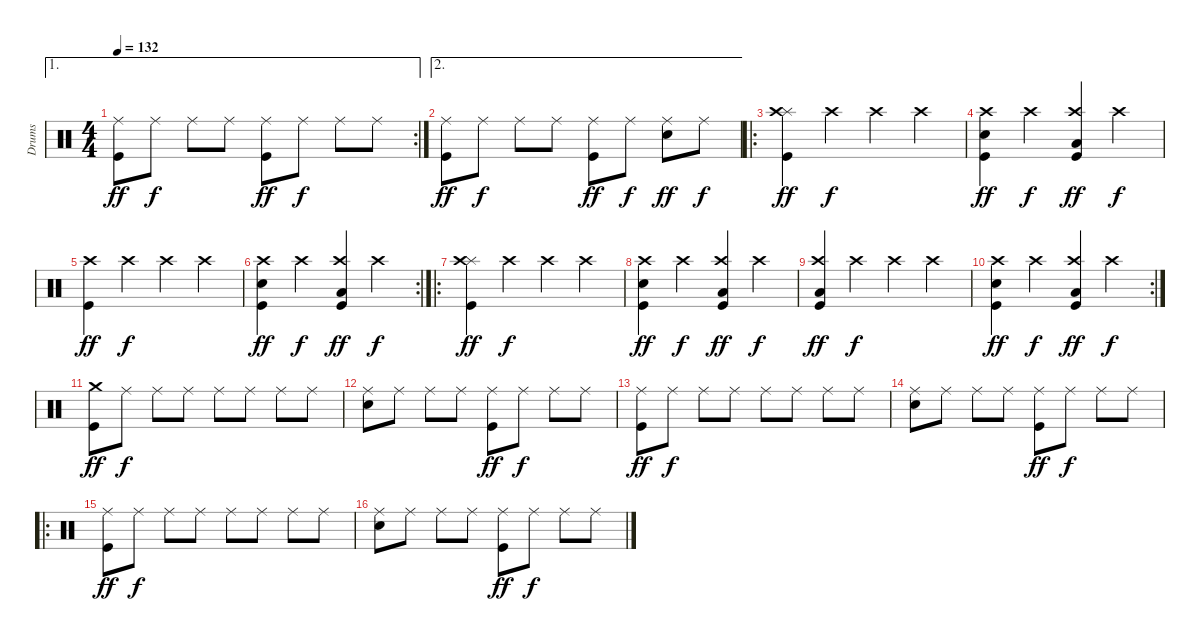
\track ("Drums" "Drums") {instrument percussion}
\staff {score}
\articulation defaults
\ae 1
\rc 2
\ts (4 4)
\tempo 132
\clef neutral
\ks c
("Ride (middle)" "Kick (hit)").8{dy ff} "Ride (middle)".8{dy f} "Ride (middle)".8 "Ride (middle)".8 ("Ride (middle)" "Kick (hit)").8{dy ff} "Ride (middle)".8{dy f} "Ride (middle)".8 "Ride (middle)".8 |
\ae 2
("Ride (middle)" "Kick (hit)").8{dy ff} "Ride (middle)".8{dy f} "Ride (middle)".8 "Ride (middle)".8 ("Ride (middle)" "Kick (hit)").8{dy ff} "Ride (middle)".8{dy f} ("Ride (middle)" "Electric Snare (hit)").8{dy ff} "Ride (middle)".8{dy f} |
\ro
("Splash (hit)" "Crash high (hit)" "Kick (hit)").4{dy ff} "Crash high (hit)".4{dy f} "Crash high (hit)".4 "Crash high (hit)".4 |
("Crash high (hit)" "Electric Snare (hit)" "Kick (hit)").4{dy ff} "Crash high (hit)".4{dy f} ("Crash high (hit)" "Low Floor Tom (hit)" "Kick (hit)").4{dy ff} "Crash high (hit)".4{dy f} |
("Crash high (hit)" "Kick (hit)").4{dy ff} "Crash high (hit)".4{dy f} "Crash high (hit)".4 "Crash high (hit)".4 |
\rc 2
("Crash high (hit)" "Electric Snare (hit)" "Kick (hit)").4{dy ff} "Crash high (hit)".4{dy f} ("Crash high (hit)" "Low Floor Tom (hit)" "Kick (hit)").4{dy ff} "Crash high (hit)".4{dy f} |
\ro
("Splash (hit)" "Crash high (hit)" "Kick (hit)").4{dy ff} "Crash high (hit)".4{dy f} "Crash high (hit)".4 "Crash high (hit)".4 |
("Crash high (hit)" "Electric Snare (hit)" "Kick (hit)").4{dy ff} "Crash high (hit)".4{dy f} ("Crash high (hit)" "Low Floor Tom (hit)" "Kick (hit)").4{dy ff} "Crash high (hit)".4{dy f} |
("Crash high (hit)" "Low Floor Tom (hit)" "Kick (hit)").4{dy ff} "Crash high (hit)".4{dy f} "Crash high (hit)".4 "Crash high (hit)".4 |
\rc 2
("Crash high (hit)" "Electric Snare (hit)" "Kick (hit)").4{dy ff} "Crash high (hit)".4{dy f} ("Crash high (hit)" "Low Floor Tom (hit)" "Kick (hit)").4{dy ff} "Crash high (hit)".4{dy f} |
("Crash medium (hit)" "Kick (hit)").8{dy ff} "Ride (middle)".8{dy f} "Ride (middle)".8 "Ride (middle)".8 "Ride (middle)".8 "Ride (middle)".8 "Ride (middle)".8 "Ride (middle)".8 |
("Ride (middle)" "Electric Snare (hit)").8 "Ride (middle)".8 "Ride (middle)".8 "Ride (middle)".8 ("Ride (middle)" "Kick (hit)").8{dy ff} "Ride (middle)".8{dy f} "Ride (middle)".8 "Ride (middle)".8 |
("Ride (middle)" "Kick (hit)").8{dy ff} "Ride (middle)".8{dy f} "Ride (middle)".8 "Ride (middle)".8 "Ride (middle)".8 "Ride (middle)".8 "Ride (middle)".8 "Ride (middle)".8 |
("Ride (middle)" "Electric Snare (hit)").8 "Ride (middle)".8 "Ride (middle)".8 "Ride (middle)".8 ("Ride (middle)" "Kick (hit)").8{dy ff} "Ride (middle)".8{dy f} "Ride (middle)".8 "Ride (middle)".8 |
\ro
("Ride (middle)" "Kick (hit)").8{dy ff} "Ride (middle)".8{dy f} "Ride (middle)".8 "Ride (middle)".8 "Ride (middle)".8 "Ride (middle)".8 "Ride (middle)".8 "Ride (middle)".8 |
("Ride (middle)" "Electric Snare (hit)").8 "Ride (middle)".8 "Ride (middle)".8 "Ride (middle)".8 ("Ride (middle)" "Kick (hit)").8{dy ff} "Ride (middle)".8{dy f} "Ride (middle)".8 "Ride (middle)".8
